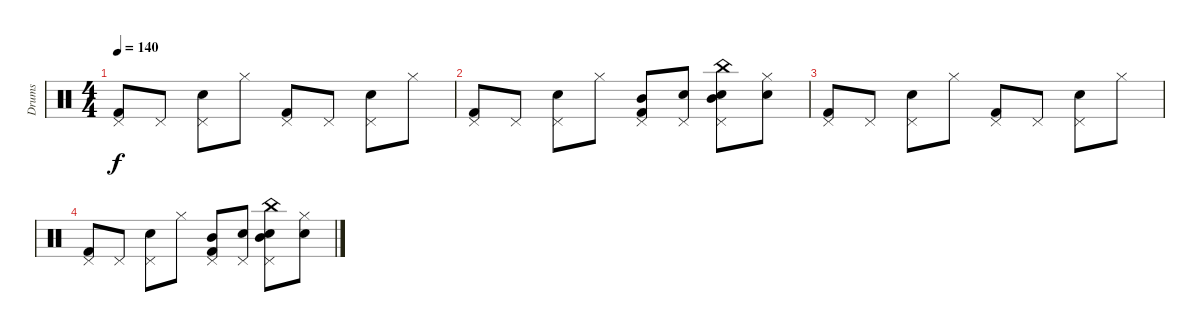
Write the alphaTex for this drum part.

\track ("Drums" "Drums") {instrument percussion}
\staff {score}
\articulation defaults
\ts (4 4)
\tempo 140
\clef neutral
\ks c
("Kick (hit) 2" "Pedal Hi-Hat (hit)").8{dy f} "Pedal Hi-Hat (hit)".8 ("Snare (hit) 2" "Pedal Hi-Hat (hit)").8 "Hi-Hat (closed)".8 ("Kick (hit) 2" "Pedal Hi-Hat (hit)").8 "Pedal Hi-Hat (hit)".8 ("Snare (hit) 2" "Pedal Hi-Hat (hit)").8 "Hi-Hat (closed)".8 |
("Kick (hit) 2" "Pedal Hi-Hat (hit)").8 "Pedal Hi-Hat (hit)".8 ("Snare (hit) 2" "Pedal Hi-Hat (hit)").8 "Hi-Hat (closed)".8 ("Kick (hit) 2" "Mid Tom (hit)" "Pedal Hi-Hat (hit)").8 ("Hand Clap (hit)" "Pedal Hi-Hat (hit)").8 ("Snare (hit) 2" "China (hit)" "Mid Tom (hit)" "Pedal Hi-Hat (hit)").8 ("Hand Clap (hit)" "Hi-Hat (closed)").8 |
("Kick (hit) 2" "Pedal Hi-Hat (hit)").8 "Pedal Hi-Hat (hit)".8 ("Snare (hit) 2" "Pedal Hi-Hat (hit)").8 "Hi-Hat (closed)".8 ("Kick (hit) 2" "Pedal Hi-Hat (hit)").8 "Pedal Hi-Hat (hit)".8 ("Snare (hit) 2" "Pedal Hi-Hat (hit)").8 "Hi-Hat (closed)".8 |
("Kick (hit) 2" "Pedal Hi-Hat (hit)").8 "Pedal Hi-Hat (hit)".8 ("Snare (hit) 2" "Pedal Hi-Hat (hit)").8 "Hi-Hat (closed)".8 ("Kick (hit) 2" "Mid Tom (hit)" "Pedal Hi-Hat (hit)").8 ("Hand Clap (hit)" "Pedal Hi-Hat (hit)").8 ("Snare (hit) 2" "China (hit)" "Mid Tom (hit)" "Pedal Hi-Hat (hit)").8 ("Hand Clap (hit)" "Hi-Hat (closed)").8
